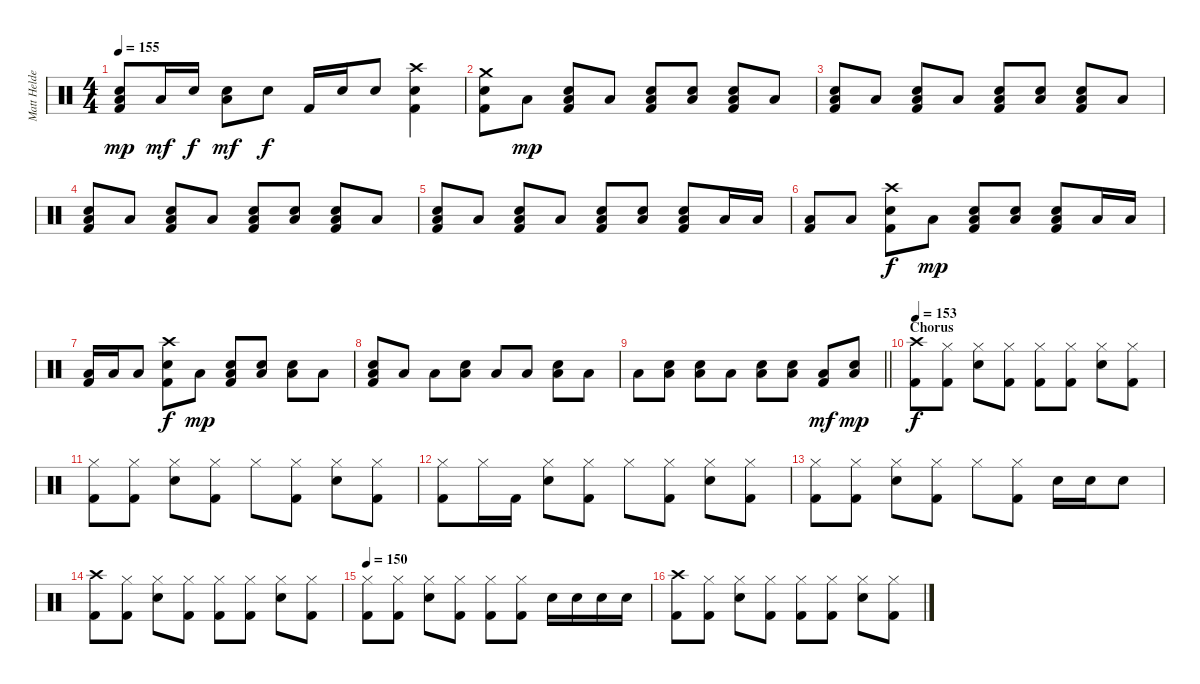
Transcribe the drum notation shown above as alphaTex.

\track ("Matt Helders - Drums MIDI" "Matt Helde") {instrument percussion}
\staff {score}
\articulation defaults
\ts (4 4)
\tempo 155
\clef neutral
\ks c
("Low Floor Tom (hit)" "Snare (hit) 2" "Kick (hit) 2").8{dy mp} "Low Floor Tom (hit)".16{dy mf} "Snare (hit) 2".16{dy f} ("Low Floor Tom (hit)" "Snare (hit) 2").8{dy mf} "Snare (hit) 2".8{dy f} "Kick (hit) 2".16 "Snare (hit) 2".16 "Snare (hit) 2".8 ("Crash high (hit)" "Snare (hit) 2" "Kick (hit) 2").4 |
("Crash medium (hit)" "Snare (hit) 2" "Kick (hit) 2").8 "Low Floor Tom (hit)".8{dy mp} ("Low Floor Tom (hit)" "Snare (hit) 2" "Kick (hit) 2").8 "Low Floor Tom (hit)".8 ("Low Floor Tom (hit)" "Snare (hit) 2" "Kick (hit) 2").8 ("Low Floor Tom (hit)" "Snare (hit) 2").8 ("Low Floor Tom (hit)" "Snare (hit) 2" "Kick (hit) 2").8 "Low Floor Tom (hit)".8 |
("Low Floor Tom (hit)" "Snare (hit) 2" "Kick (hit) 2").8 "Low Floor Tom (hit)".8 ("Low Floor Tom (hit)" "Snare (hit) 2" "Kick (hit) 2").8 "Low Floor Tom (hit)".8 ("Low Floor Tom (hit)" "Snare (hit) 2" "Kick (hit) 2").8 ("Low Floor Tom (hit)" "Snare (hit) 2").8 ("Low Floor Tom (hit)" "Snare (hit) 2" "Kick (hit) 2").8 "Low Floor Tom (hit)".8 |
("Low Floor Tom (hit)" "Snare (hit) 2" "Kick (hit) 2").8 "Low Floor Tom (hit)".8 ("Low Floor Tom (hit)" "Snare (hit) 2" "Kick (hit) 2").8 "Low Floor Tom (hit)".8 ("Low Floor Tom (hit)" "Snare (hit) 2" "Kick (hit) 2").8 ("Low Floor Tom (hit)" "Snare (hit) 2").8 ("Low Floor Tom (hit)" "Snare (hit) 2" "Kick (hit) 2").8 "Low Floor Tom (hit)".8 |
("Low Floor Tom (hit)" "Snare (hit) 2" "Kick (hit) 2").8 "Low Floor Tom (hit)".8 ("Low Floor Tom (hit)" "Snare (hit) 2" "Kick (hit) 2").8 "Low Floor Tom (hit)".8 ("Low Floor Tom (hit)" "Snare (hit) 2" "Kick (hit) 2").8 ("Low Floor Tom (hit)" "Snare (hit) 2").8 ("Low Floor Tom (hit)" "Snare (hit) 2" "Kick (hit) 2").8 "Low Floor Tom (hit)".16 "Low Floor Tom (hit)".16 |
("Low Floor Tom (hit)" "Kick (hit) 2").8 "Low Floor Tom (hit)".8 ("Crash high (hit)" "Snare (hit) 2" "Kick (hit) 2").8{dy f} "Low Floor Tom (hit)".8{dy mp} ("Low Floor Tom (hit)" "Snare (hit) 2" "Kick (hit) 2").8 ("Low Floor Tom (hit)" "Snare (hit) 2").8 ("Low Floor Tom (hit)" "Snare (hit) 2" "Kick (hit) 2").8 "Low Floor Tom (hit)".16 "Low Floor Tom (hit)".16 |
("Low Floor Tom (hit)" "Kick (hit) 2").16 "Low Floor Tom (hit)".16 "Low Floor Tom (hit)".8 ("Crash high (hit)" "Snare (hit) 2" "Kick (hit) 2").8{dy f} "Low Floor Tom (hit)".8{dy mp} ("Low Floor Tom (hit)" "Snare (hit) 2" "Kick (hit) 2").8 ("Low Floor Tom (hit)" "Snare (hit) 2").8 ("Low Floor Tom (hit)" "Snare (hit) 2").8 "Low Floor Tom (hit)".8 |
("Low Floor Tom (hit)" "Snare (hit) 2" "Kick (hit) 2").8 "Low Floor Tom (hit)".8 "Low Floor Tom (hit)".8 ("Low Floor Tom (hit)" "Snare (hit) 2").8 "Low Floor Tom (hit)".8 "Low Floor Tom (hit)".8 ("Low Floor Tom (hit)" "Snare (hit) 2").8 "Low Floor Tom (hit)".8 |
\barLineRight lightlight "Low Floor Tom (hit)".8
("Low Floor Tom (hit)" "Snare (hit) 2").8 ("Low Floor Tom (hit)" "Snare (hit) 2").8 "Low Floor Tom (hit)".8 ("Low Floor Tom (hit)" "Snare (hit) 2").8 ("Low Floor Tom (hit)" "Snare (hit) 2").8 ("Low Floor Tom (hit)" "Kick (hit) 2").8{dy mf} ("Low Floor Tom (hit)" "Snare (hit) 2").8{dy mp} |
\section ("" "Chorus")
\tempo 153
("Crash high (hit)" "Kick (hit) 2").8{dy f} ("Hi-Hat (closed)" "Kick (hit) 2").8 ("Hi-Hat (closed)" "Snare (hit) 2").8 ("Hi-Hat (closed)" "Kick (hit) 2").8 ("Hi-Hat (closed)" "Kick (hit) 2").8 ("Hi-Hat (closed)" "Kick (hit) 2").8 ("Hi-Hat (closed)" "Snare (hit) 2").8 ("Hi-Hat (closed)" "Kick (hit) 2").8 |
("Hi-Hat (closed)" "Kick (hit) 2").8 ("Hi-Hat (closed)" "Kick (hit) 2").8 ("Hi-Hat (closed)" "Snare (hit) 2").8 ("Hi-Hat (closed)" "Kick (hit) 2").8 "Hi-Hat (closed)".8 ("Hi-Hat (closed)" "Kick (hit) 2").8 ("Hi-Hat (closed)" "Snare (hit) 2").8 ("Hi-Hat (closed)" "Kick (hit) 2").8 |
("Hi-Hat (closed)" "Kick (hit) 2").8 "Hi-Hat (closed)".16 "Kick (hit) 2".16 ("Hi-Hat (closed)" "Snare (hit) 2").8 ("Hi-Hat (closed)" "Kick (hit) 2").8 "Hi-Hat (closed)".8 ("Hi-Hat (closed)" "Kick (hit) 2").8 ("Hi-Hat (closed)" "Snare (hit) 2").8 ("Hi-Hat (closed)" "Kick (hit) 2").8 |
("Hi-Hat (closed)" "Kick (hit) 2").8 ("Hi-Hat (closed)" "Kick (hit) 2").8 ("Hi-Hat (closed)" "Snare (hit) 2").8 ("Hi-Hat (closed)" "Kick (hit) 2").8 "Hi-Hat (closed)".8 ("Hi-Hat (closed)" "Kick (hit) 2").8 "Snare (hit) 2".16 "Snare (hit) 2".16 "Snare (hit) 2".8 |
("Crash high (hit)" "Kick (hit) 2").8 ("Hi-Hat (closed)" "Kick (hit) 2").8 ("Hi-Hat (closed)" "Snare (hit) 2").8 ("Hi-Hat (closed)" "Kick (hit) 2").8 ("Hi-Hat (closed)" "Kick (hit) 2").8 ("Hi-Hat (closed)" "Kick (hit) 2").8 ("Hi-Hat (closed)" "Snare (hit) 2").8 ("Hi-Hat (closed)" "Kick (hit) 2").8 |
\tempo 150
("Hi-Hat (closed)" "Kick (hit) 2").8 ("Hi-Hat (closed)" "Kick (hit) 2").8 ("Hi-Hat (closed)" "Snare (hit) 2").8 ("Hi-Hat (closed)" "Kick (hit) 2").8 ("Hi-Hat (closed)" "Kick (hit) 2").8 ("Hi-Hat (closed)" "Kick (hit) 2").8 "Snare (hit) 2".16 "Snare (hit) 2".16 "Snare (hit) 2".16 "Snare (hit) 2".16 |
("Crash high (hit)" "Kick (hit) 2").8 ("Hi-Hat (closed)" "Kick (hit) 2").8 ("Hi-Hat (closed)" "Snare (hit) 2").8 ("Hi-Hat (closed)" "Kick (hit) 2").8 ("Hi-Hat (closed)" "Kick (hit) 2").8 ("Hi-Hat (closed)" "Kick (hit) 2").8 ("Hi-Hat (closed)" "Snare (hit) 2").8 ("Hi-Hat (closed)" "Kick (hit) 2").8
